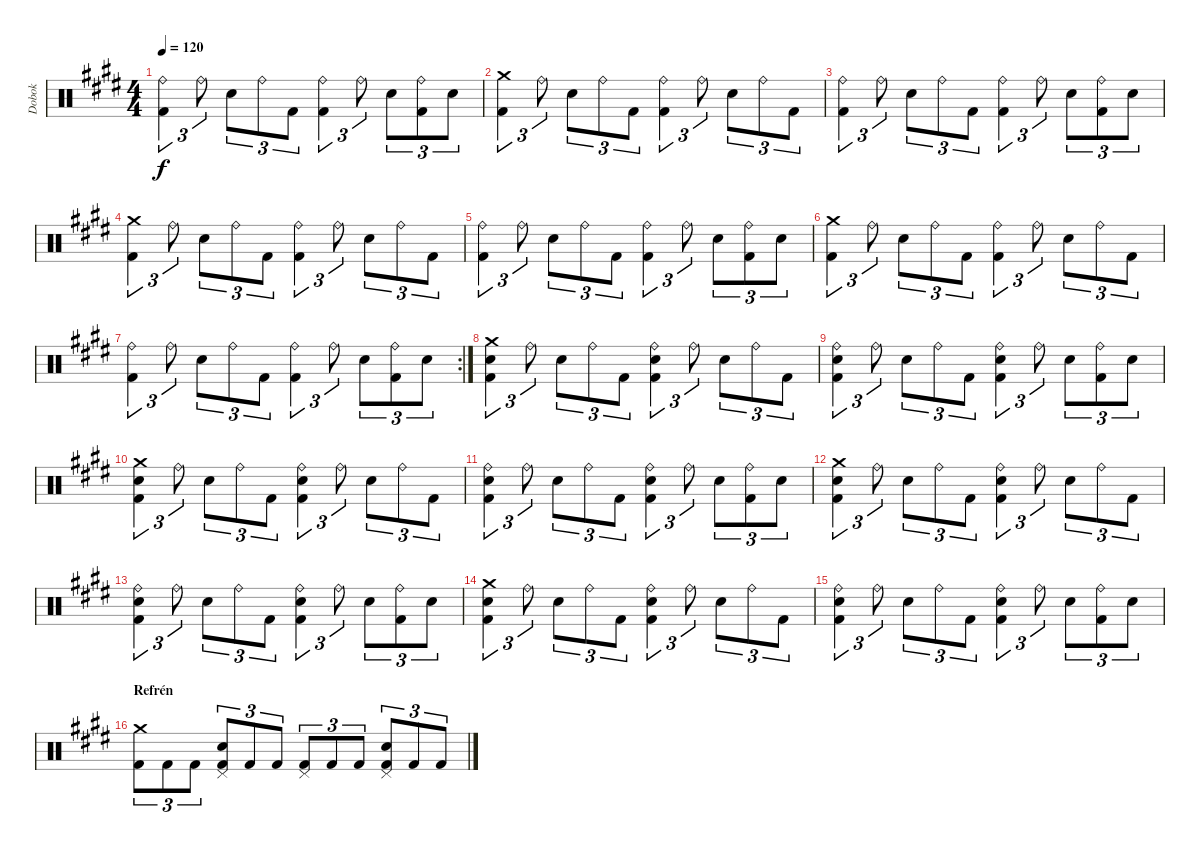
\track ("Dobok" "Dobok") {instrument percussion}
\staff {score}
\articulation defaults
\ts (4 4)
\tempo 120
\clef neutral
\ks c#minor
("Ride (bell)" "Kick (hit) 2").4{tu (3 2) dy f} "Ride (bell)".8{tu (3 2)} "Snare (hit) 2".8{tu (3 2)} "Ride (bell)".8{tu (3 2)} "Kick (hit) 2".8{tu (3 2)} ("Ride (bell)" "Kick (hit) 2").4{tu (3 2)} "Ride (bell)".8{tu (3 2)} "Snare (hit) 2".8{tu (3 2)} ("Ride (bell)" "Kick (hit) 2").8{tu (3 2)} "Snare (hit) 2".8{tu (3 2)} |
("Crash medium (hit)" "Kick (hit) 2").4{tu (3 2)} "Ride (bell)".8{tu (3 2)} "Snare (hit) 2".8{tu (3 2)} "Ride (bell)".8{tu (3 2)} "Kick (hit) 2".8{tu (3 2)} ("Ride (bell)" "Kick (hit) 2").4{tu (3 2)} "Ride (bell)".8{tu (3 2)} "Snare (hit) 2".8{tu (3 2)} "Ride (bell)".8{tu (3 2)} "Kick (hit) 2".8{tu (3 2)} |
("Ride (bell)" "Kick (hit) 2").4{tu (3 2)} "Ride (bell)".8{tu (3 2)} "Snare (hit) 2".8{tu (3 2)} "Ride (bell)".8{tu (3 2)} "Kick (hit) 2".8{tu (3 2)} ("Ride (bell)" "Kick (hit) 2").4{tu (3 2)} "Ride (bell)".8{tu (3 2)} "Snare (hit) 2".8{tu (3 2)} ("Ride (bell)" "Kick (hit) 2").8{tu (3 2)} "Snare (hit) 2".8{tu (3 2)} |
("Crash medium (hit)" "Kick (hit) 2").4{tu (3 2)} "Ride (bell)".8{tu (3 2)} "Snare (hit) 2".8{tu (3 2)} "Ride (bell)".8{tu (3 2)} "Kick (hit) 2".8{tu (3 2)} ("Ride (bell)" "Kick (hit) 2").4{tu (3 2)} "Ride (bell)".8{tu (3 2)} "Snare (hit) 2".8{tu (3 2)} "Ride (bell)".8{tu (3 2)} "Kick (hit) 2".8{tu (3 2)} |
("Ride (bell)" "Kick (hit) 2").4{tu (3 2)} "Ride (bell)".8{tu (3 2)} "Snare (hit) 2".8{tu (3 2)} "Ride (bell)".8{tu (3 2)} "Kick (hit) 2".8{tu (3 2)} ("Ride (bell)" "Kick (hit) 2").4{tu (3 2)} "Ride (bell)".8{tu (3 2)} "Snare (hit) 2".8{tu (3 2)} ("Ride (bell)" "Kick (hit) 2").8{tu (3 2)} "Snare (hit) 2".8{tu (3 2)} |
("Crash medium (hit)" "Kick (hit) 2").4{tu (3 2)} "Ride (bell)".8{tu (3 2)} "Snare (hit) 2".8{tu (3 2)} "Ride (bell)".8{tu (3 2)} "Kick (hit) 2".8{tu (3 2)} ("Ride (bell)" "Kick (hit) 2").4{tu (3 2)} "Ride (bell)".8{tu (3 2)} "Snare (hit) 2".8{tu (3 2)} "Ride (bell)".8{tu (3 2)} "Kick (hit) 2".8{tu (3 2)} |
\rc 2
("Ride (bell)" "Kick (hit) 2").4{tu (3 2)} "Ride (bell)".8{tu (3 2)} "Snare (hit) 2".8{tu (3 2)} "Ride (bell)".8{tu (3 2)} "Kick (hit) 2".8{tu (3 2)} ("Ride (bell)" "Kick (hit) 2").4{tu (3 2)} "Ride (bell)".8{tu (3 2)} "Snare (hit) 2".8{tu (3 2)} ("Ride (bell)" "Kick (hit) 2").8{tu (3 2)} "Snare (hit) 2".8{tu (3 2)} |
("Crash medium (hit)" "Snare (hit) 2" "Kick (hit) 2").4{tu (3 2)} "Ride (bell)".8{tu (3 2)} "Snare (hit) 2".8{tu (3 2)} "Ride (bell)".8{tu (3 2)} "Kick (hit) 2".8{tu (3 2)} ("Ride (bell)" "Snare (hit) 2" "Kick (hit) 2").4{tu (3 2)} "Ride (bell)".8{tu (3 2)} "Snare (hit) 2".8{tu (3 2)} "Ride (bell)".8{tu (3 2)} "Kick (hit) 2".8{tu (3 2)} |
("Ride (bell)" "Snare (hit) 2" "Kick (hit) 2").4{tu (3 2)} "Ride (bell)".8{tu (3 2)} "Snare (hit) 2".8{tu (3 2)} "Ride (bell)".8{tu (3 2)} "Kick (hit) 2".8{tu (3 2)} ("Ride (bell)" "Snare (hit) 2" "Kick (hit) 2").4{tu (3 2)} "Ride (bell)".8{tu (3 2)} "Snare (hit) 2".8{tu (3 2)} ("Ride (bell)" "Kick (hit) 2").8{tu (3 2)} "Snare (hit) 2".8{tu (3 2)} |
("Crash medium (hit)" "Snare (hit) 2" "Kick (hit) 2").4{tu (3 2)} "Ride (bell)".8{tu (3 2)} "Snare (hit) 2".8{tu (3 2)} "Ride (bell)".8{tu (3 2)} "Kick (hit) 2".8{tu (3 2)} ("Ride (bell)" "Snare (hit) 2" "Kick (hit) 2").4{tu (3 2)} "Ride (bell)".8{tu (3 2)} "Snare (hit) 2".8{tu (3 2)} "Ride (bell)".8{tu (3 2)} "Kick (hit) 2".8{tu (3 2)} |
("Ride (bell)" "Snare (hit) 2" "Kick (hit) 2").4{tu (3 2)} "Ride (bell)".8{tu (3 2)} "Snare (hit) 2".8{tu (3 2)} "Ride (bell)".8{tu (3 2)} "Kick (hit) 2".8{tu (3 2)} ("Ride (bell)" "Snare (hit) 2" "Kick (hit) 2").4{tu (3 2)} "Ride (bell)".8{tu (3 2)} "Snare (hit) 2".8{tu (3 2)} ("Ride (bell)" "Kick (hit) 2").8{tu (3 2)} "Snare (hit) 2".8{tu (3 2)} |
("Crash medium (hit)" "Snare (hit) 2" "Kick (hit) 2").4{tu (3 2)} "Ride (bell)".8{tu (3 2)} "Snare (hit) 2".8{tu (3 2)} "Ride (bell)".8{tu (3 2)} "Kick (hit) 2".8{tu (3 2)} ("Ride (bell)" "Snare (hit) 2" "Kick (hit) 2").4{tu (3 2)} "Ride (bell)".8{tu (3 2)} "Snare (hit) 2".8{tu (3 2)} "Ride (bell)".8{tu (3 2)} "Kick (hit) 2".8{tu (3 2)} |
("Ride (bell)" "Snare (hit) 2" "Kick (hit) 2").4{tu (3 2)} "Ride (bell)".8{tu (3 2)} "Snare (hit) 2".8{tu (3 2)} "Ride (bell)".8{tu (3 2)} "Kick (hit) 2".8{tu (3 2)} ("Ride (bell)" "Snare (hit) 2" "Kick (hit) 2").4{tu (3 2)} "Ride (bell)".8{tu (3 2)} "Snare (hit) 2".8{tu (3 2)} ("Ride (bell)" "Kick (hit) 2").8{tu (3 2)} "Snare (hit) 2".8{tu (3 2)} |
("Crash medium (hit)" "Snare (hit) 2" "Kick (hit) 2").4{tu (3 2)} "Ride (bell)".8{tu (3 2)} "Snare (hit) 2".8{tu (3 2)} "Ride (bell)".8{tu (3 2)} "Kick (hit) 2".8{tu (3 2)} ("Ride (bell)" "Snare (hit) 2" "Kick (hit) 2").4{tu (3 2)} "Ride (bell)".8{tu (3 2)} "Snare (hit) 2".8{tu (3 2)} "Ride (bell)".8{tu (3 2)} "Kick (hit) 2".8{tu (3 2)} |
("Ride (bell)" "Snare (hit) 2" "Kick (hit) 2").4{tu (3 2)} "Ride (bell)".8{tu (3 2)} "Snare (hit) 2".8{tu (3 2)} "Ride (bell)".8{tu (3 2)} "Kick (hit) 2".8{tu (3 2)} ("Ride (bell)" "Snare (hit) 2" "Kick (hit) 2").4{tu (3 2)} "Ride (bell)".8{tu (3 2)} "Snare (hit) 2".8{tu (3 2)} ("Ride (bell)" "Kick (hit) 2").8{tu (3 2)} "Snare (hit) 2".8{tu (3 2)} |
\section ("" "Refrén")
("Crash medium (hit)" "Kick (hit) 2").8{tu (3 2)} "Kick (hit) 2".8{tu (3 2)} "Kick (hit) 2".8{tu (3 2)} ("Pedal Hi-Hat (hit)" "Snare (hit) 2" "Kick (hit) 2").8{tu (3 2)} "Kick (hit) 2".8{tu (3 2)} "Kick (hit) 2".8{tu (3 2)} ("Pedal Hi-Hat (hit)" "Kick (hit) 2").8{tu (3 2)} "Kick (hit) 2".8{tu (3 2)} "Kick (hit) 2".8{tu (3 2)} ("Pedal Hi-Hat (hit)" "Snare (hit) 2" "Kick (hit) 2").8{tu (3 2)} "Kick (hit) 2".8{tu (3 2)} "Kick (hit) 2".8{tu (3 2)}
